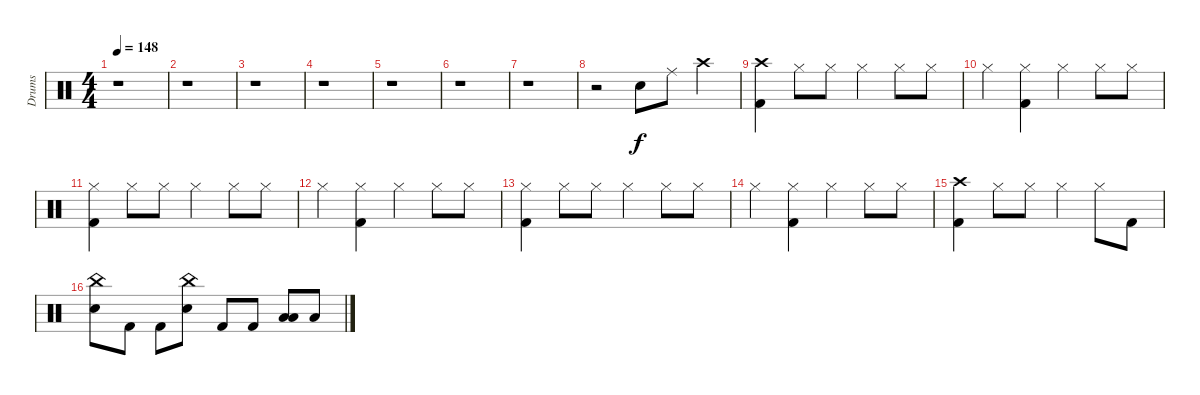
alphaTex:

\track ("Drums" "Drums") {instrument percussion}
\staff {score}
\articulation defaults
\ts (4 4)
\tempo 148
\clef neutral
\ks c
r.1{dy f} |
r.1 |
r.1 |
r.1 |
r.1 |
r.1 |
r.1 |
r.2 "Electric Snare (hit)".8 "Ride (middle)".8 "Crash high (hit)".4 |
("Crash high (hit)" "Kick (hit) 2").4 "Hi-Hat (closed)".8 "Hi-Hat (closed)".8 "Hi-Hat (closed)".4 "Hi-Hat (closed)".8 "Hi-Hat (closed)".8 |
"Hi-Hat (closed)".4 ("Hi-Hat (closed)" "Kick (hit) 2").4 "Hi-Hat (closed)".4 "Hi-Hat (closed)".8 "Hi-Hat (closed)".8 |
("Hi-Hat (closed)" "Kick (hit) 2").4 "Hi-Hat (closed)".8 "Hi-Hat (closed)".8 "Hi-Hat (closed)".4 "Hi-Hat (closed)".8 "Hi-Hat (closed)".8 |
"Hi-Hat (closed)".4 ("Hi-Hat (closed)" "Kick (hit) 2").4 "Hi-Hat (closed)".4 "Hi-Hat (closed)".8 "Hi-Hat (closed)".8 |
("Hi-Hat (closed)" "Kick (hit) 2").4 "Hi-Hat (closed)".8 "Hi-Hat (closed)".8 "Hi-Hat (closed)".4 "Hi-Hat (closed)".8 "Hi-Hat (closed)".8 |
"Hi-Hat (closed)".4 ("Hi-Hat (closed)" "Kick (hit) 2").4 "Hi-Hat (closed)".4 "Hi-Hat (closed)".8 "Hi-Hat (closed)".8 |
("Crash high (hit)" "Kick (hit) 2").4 "Hi-Hat (closed)".8 "Hi-Hat (closed)".8 "Hi-Hat (closed)".4 "Hi-Hat (closed)".8 "Kick (hit) 2".8 |
("China (hit)" "Electric Snare (hit)").8 "Kick (hit) 2".8 "Kick (hit) 2".8 ("China (hit)" "Electric Snare (hit)").8 "Kick (hit) 2".8 "Kick (hit) 2".8 ("Low Tom (hit)" "Low Floor Tom (hit)").8 "Low Floor Tom (hit)".8
